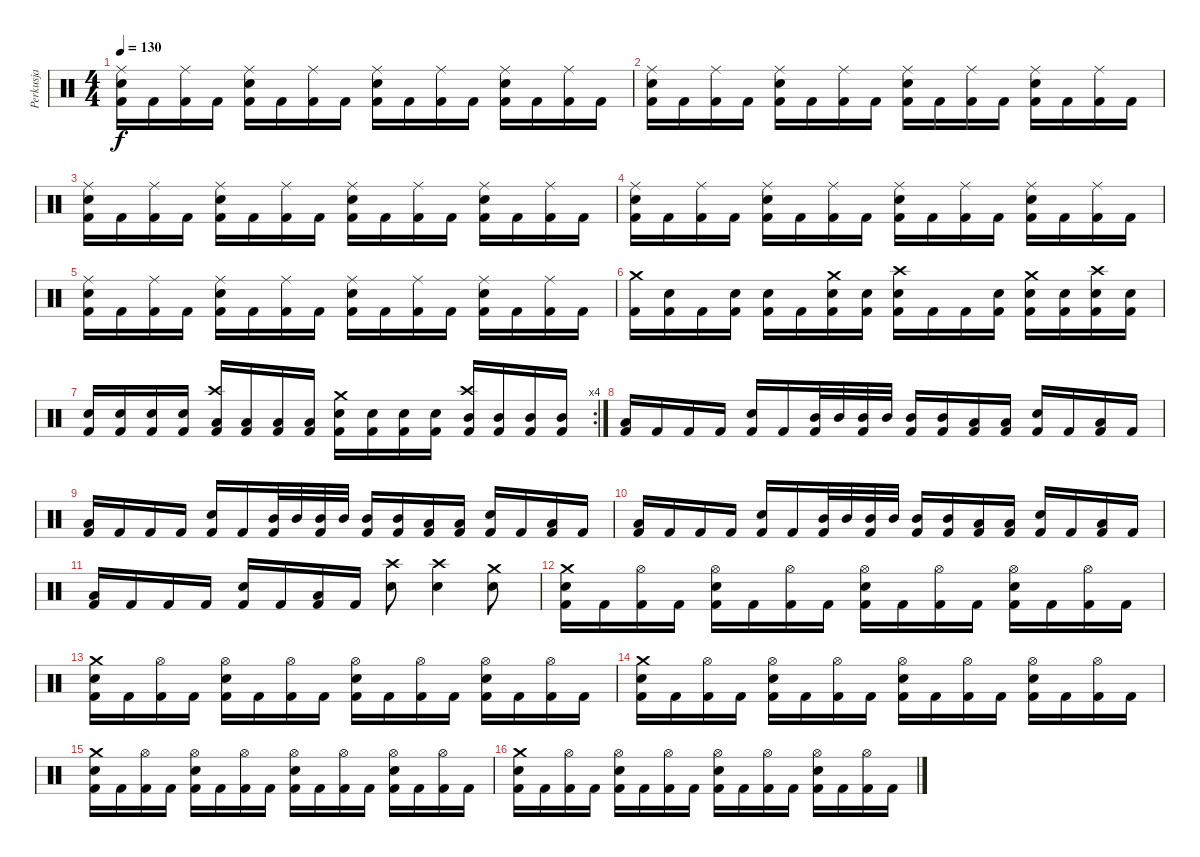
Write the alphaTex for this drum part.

\track ("Perkusja" "Perkusja") {instrument percussion}
\staff {score}
\articulation defaults
\ts (4 4)
\tempo 130
\clef neutral
\ks c
("Kick (hit) 2" "Snare (hit) 2" "Ride (middle)").16{dy f} "Kick (hit) 2".16 ("Kick (hit) 2" "Ride (middle)").16 "Kick (hit) 2".16 ("Kick (hit) 2" "Snare (hit) 2" "Ride (middle)").16 "Kick (hit) 2".16 ("Kick (hit) 2" "Ride (middle)").16 "Kick (hit) 2".16 ("Kick (hit) 2" "Snare (hit) 2" "Ride (middle)").16 "Kick (hit) 2".16 ("Kick (hit) 2" "Ride (middle)").16 "Kick (hit) 2".16 ("Kick (hit) 2" "Snare (hit) 2" "Ride (middle)").16 "Kick (hit) 2".16 ("Kick (hit) 2" "Ride (middle)").16 "Kick (hit) 2".16 |
("Kick (hit) 2" "Snare (hit) 2" "Ride (middle)").16 "Kick (hit) 2".16 ("Kick (hit) 2" "Ride (middle)").16 "Kick (hit) 2".16 ("Kick (hit) 2" "Snare (hit) 2" "Ride (middle)").16 "Kick (hit) 2".16 ("Kick (hit) 2" "Ride (middle)").16 "Kick (hit) 2".16 ("Kick (hit) 2" "Snare (hit) 2" "Ride (middle)").16 "Kick (hit) 2".16 ("Kick (hit) 2" "Ride (middle)").16 "Kick (hit) 2".16 ("Kick (hit) 2" "Snare (hit) 2" "Ride (middle)").16 "Kick (hit) 2".16 ("Kick (hit) 2" "Ride (middle)").16 "Kick (hit) 2".16 |
("Kick (hit) 2" "Snare (hit) 2" "Ride (middle)").16 "Kick (hit) 2".16 ("Kick (hit) 2" "Ride (middle)").16 "Kick (hit) 2".16 ("Kick (hit) 2" "Snare (hit) 2" "Ride (middle)").16 "Kick (hit) 2".16 ("Kick (hit) 2" "Ride (middle)").16 "Kick (hit) 2".16 ("Kick (hit) 2" "Snare (hit) 2" "Ride (middle)").16 "Kick (hit) 2".16 ("Kick (hit) 2" "Ride (middle)").16 "Kick (hit) 2".16 ("Kick (hit) 2" "Snare (hit) 2" "Ride (middle)").16 "Kick (hit) 2".16 ("Kick (hit) 2" "Ride (middle)").16 "Kick (hit) 2".16 |
("Kick (hit) 2" "Snare (hit) 2" "Ride (middle)").16 "Kick (hit) 2".16 ("Kick (hit) 2" "Ride (middle)").16 "Kick (hit) 2".16 ("Kick (hit) 2" "Snare (hit) 2" "Ride (middle)").16 "Kick (hit) 2".16 ("Kick (hit) 2" "Ride (middle)").16 "Kick (hit) 2".16 ("Kick (hit) 2" "Snare (hit) 2" "Ride (middle)").16 "Kick (hit) 2".16 ("Kick (hit) 2" "Ride (middle)").16 "Kick (hit) 2".16 ("Kick (hit) 2" "Snare (hit) 2" "Ride (middle)").16 "Kick (hit) 2".16 ("Kick (hit) 2" "Ride (middle)").16 "Kick (hit) 2".16 |
("Kick (hit) 2" "Snare (hit) 2" "Ride (middle)").16 "Kick (hit) 2".16 ("Kick (hit) 2" "Ride (middle)").16 "Kick (hit) 2".16 ("Kick (hit) 2" "Snare (hit) 2" "Ride (middle)").16 "Kick (hit) 2".16 ("Kick (hit) 2" "Ride (middle)").16 "Kick (hit) 2".16 ("Kick (hit) 2" "Snare (hit) 2" "Ride (middle)").16 "Kick (hit) 2".16 ("Kick (hit) 2" "Ride (middle)").16 "Kick (hit) 2".16 ("Kick (hit) 2" "Snare (hit) 2" "Ride (middle)").16 "Kick (hit) 2".16 ("Kick (hit) 2" "Ride (middle)").16 "Kick (hit) 2".16 |
("Kick (hit) 2" "Crash medium (hit)").16 ("Kick (hit) 2" "Snare (hit) 2").16 "Kick (hit) 2".16 ("Kick (hit) 2" "Snare (hit) 2").16 ("Kick (hit) 2" "Snare (hit) 2").16 "Kick (hit) 2".16 ("Kick (hit) 2" "Snare (hit) 2" "Crash medium (hit)").16 ("Kick (hit) 2" "Snare (hit) 2").16 ("Kick (hit) 2" "Snare (hit) 2" "Crash high (hit)").16 "Kick (hit) 2".16 "Kick (hit) 2".16 ("Kick (hit) 2" "Snare (hit) 2").16 ("Kick (hit) 2" "Snare (hit) 2" "Crash medium (hit)").16 ("Kick (hit) 2" "Snare (hit) 2").16 ("Kick (hit) 2" "Snare (hit) 2" "Crash high (hit)").16 ("Kick (hit) 2" "Snare (hit) 2").16 |
\rc 4
("Kick (hit) 2" "Snare (hit) 2").16 ("Kick (hit) 2" "Snare (hit) 2").16 ("Kick (hit) 2" "Snare (hit) 2").16 ("Kick (hit) 2" "Snare (hit) 2").16 ("Kick (hit) 2" "Low Tom (hit)" "Crash high (hit)").16 ("Kick (hit) 2" "Low Tom (hit)").16 ("Kick (hit) 2" "Low Tom (hit)").16 ("Kick (hit) 2" "Low Tom (hit)").16 ("Kick (hit) 2" "Snare (hit) 2" "Crash medium (hit)").16 ("Kick (hit) 2" "Snare (hit) 2").16 ("Kick (hit) 2" "Snare (hit) 2").16 ("Kick (hit) 2" "Snare (hit) 2").16 ("Kick (hit) 2" "Mid Tom (hit)" "Crash high (hit)").16 ("Kick (hit) 2" "Mid Tom (hit)").16 ("Kick (hit) 2" "Mid Tom (hit)").16 ("Kick (hit) 2" "Mid Tom (hit)").16 |
("Kick (hit) 2" "Low Floor Tom (hit)").16 "Kick (hit) 2".16 "Kick (hit) 2".16 "Kick (hit) 2".16 ("Kick (hit) 2" "Snare (hit) 2").16 "Kick (hit) 2".16 ("Kick (hit) 2" "Mid Tom (hit)").32 "Mid Tom (hit)".32 ("Kick (hit) 2" "Mid Tom (hit)").32 "Mid Tom (hit)".32 ("Kick (hit) 2" "Mid Tom (hit)").16 ("Kick (hit) 2" "Mid Tom (hit)").16 ("Kick (hit) 2" "Low Tom (hit)").16 ("Kick (hit) 2" "Low Tom (hit)").16 ("Kick (hit) 2" "Snare (hit) 2").16 "Kick (hit) 2".16 ("Kick (hit) 2" "Low Floor Tom (hit)").16 "Kick (hit) 2".16 |
("Kick (hit) 2" "Low Floor Tom (hit)").16 "Kick (hit) 2".16 "Kick (hit) 2".16 "Kick (hit) 2".16 ("Kick (hit) 2" "Snare (hit) 2").16 "Kick (hit) 2".16 ("Kick (hit) 2" "Mid Tom (hit)").32 "Mid Tom (hit)".32 ("Kick (hit) 2" "Mid Tom (hit)").32 "Mid Tom (hit)".32 ("Kick (hit) 2" "Mid Tom (hit)").16 ("Kick (hit) 2" "Mid Tom (hit)").16 ("Kick (hit) 2" "Low Tom (hit)").16 ("Kick (hit) 2" "Low Tom (hit)").16 ("Kick (hit) 2" "Snare (hit) 2").16 "Kick (hit) 2".16 ("Kick (hit) 2" "Low Floor Tom (hit)").16 "Kick (hit) 2".16 |
("Kick (hit) 2" "Low Floor Tom (hit)").16 "Kick (hit) 2".16 "Kick (hit) 2".16 "Kick (hit) 2".16 ("Kick (hit) 2" "Snare (hit) 2").16 "Kick (hit) 2".16 ("Kick (hit) 2" "Mid Tom (hit)").32 "Mid Tom (hit)".32 ("Kick (hit) 2" "Mid Tom (hit)").32 "Mid Tom (hit)".32 ("Kick (hit) 2" "Mid Tom (hit)").16 ("Kick (hit) 2" "Mid Tom (hit)").16 ("Kick (hit) 2" "Low Tom (hit)").16 ("Kick (hit) 2" "Low Tom (hit)").16 ("Kick (hit) 2" "Snare (hit) 2").16 "Kick (hit) 2".16 ("Kick (hit) 2" "Low Floor Tom (hit)").16 "Kick (hit) 2".16 |
("Kick (hit) 2" "Low Floor Tom (hit)").16 "Kick (hit) 2".16 "Kick (hit) 2".16 "Kick (hit) 2".16 ("Kick (hit) 2" "Snare (hit) 2").16 "Kick (hit) 2".16 ("Kick (hit) 2" "Low Floor Tom (hit)").16 "Kick (hit) 2".16 ("Crash high (hit)" "Snare (hit) 2").8 ("Crash high (hit)" "Snare (hit) 2").4 ("Crash medium (hit)" "Snare (hit) 2").8 |
("Kick (hit) 2" "Snare (hit) 2" "Crash medium (hit)").16 "Kick (hit) 2".16 ("Kick (hit) 2" "Hi-Hat (open)").16 "Kick (hit) 2".16 ("Kick (hit) 2" "Snare (hit) 2" "Hi-Hat (open)").16 "Kick (hit) 2".16 ("Kick (hit) 2" "Hi-Hat (open)").16 "Kick (hit) 2".16 ("Kick (hit) 2" "Snare (hit) 2" "Hi-Hat (open)").16 "Kick (hit) 2".16 ("Kick (hit) 2" "Hi-Hat (open)").16 "Kick (hit) 2".16 ("Kick (hit) 2" "Snare (hit) 2" "Hi-Hat (open)").16 "Kick (hit) 2".16 ("Kick (hit) 2" "Hi-Hat (open)").16 "Kick (hit) 2".16 |
("Kick (hit) 2" "Snare (hit) 2" "Crash medium (hit)").16 "Kick (hit) 2".16 ("Kick (hit) 2" "Hi-Hat (open)").16 "Kick (hit) 2".16 ("Kick (hit) 2" "Snare (hit) 2" "Hi-Hat (open)").16 "Kick (hit) 2".16 ("Kick (hit) 2" "Hi-Hat (open)").16 "Kick (hit) 2".16 ("Kick (hit) 2" "Snare (hit) 2" "Hi-Hat (open)").16 "Kick (hit) 2".16 ("Kick (hit) 2" "Hi-Hat (open)").16 "Kick (hit) 2".16 ("Kick (hit) 2" "Snare (hit) 2" "Hi-Hat (open)").16 "Kick (hit) 2".16 ("Kick (hit) 2" "Hi-Hat (open)").16 "Kick (hit) 2".16 |
("Kick (hit) 2" "Snare (hit) 2" "Crash medium (hit)").16 "Kick (hit) 2".16 ("Kick (hit) 2" "Hi-Hat (open)").16 "Kick (hit) 2".16 ("Kick (hit) 2" "Snare (hit) 2" "Hi-Hat (open)").16 "Kick (hit) 2".16 ("Kick (hit) 2" "Hi-Hat (open)").16 "Kick (hit) 2".16 ("Kick (hit) 2" "Snare (hit) 2" "Hi-Hat (open)").16 "Kick (hit) 2".16 ("Kick (hit) 2" "Hi-Hat (open)").16 "Kick (hit) 2".16 ("Kick (hit) 2" "Snare (hit) 2" "Hi-Hat (open)").16 "Kick (hit) 2".16 ("Kick (hit) 2" "Hi-Hat (open)").16 "Kick (hit) 2".16 |
("Kick (hit) 2" "Snare (hit) 2" "Crash medium (hit)").16 "Kick (hit) 2".16 ("Kick (hit) 2" "Hi-Hat (open)").16 "Kick (hit) 2".16 ("Kick (hit) 2" "Snare (hit) 2" "Hi-Hat (open)").16 "Kick (hit) 2".16 ("Kick (hit) 2" "Hi-Hat (open)").16 "Kick (hit) 2".16 ("Kick (hit) 2" "Snare (hit) 2" "Hi-Hat (open)").16 "Kick (hit) 2".16 ("Kick (hit) 2" "Hi-Hat (open)").16 "Kick (hit) 2".16 ("Kick (hit) 2" "Snare (hit) 2" "Hi-Hat (open)").16 "Kick (hit) 2".16 ("Kick (hit) 2" "Hi-Hat (open)").16 "Kick (hit) 2".16 |
("Kick (hit) 2" "Snare (hit) 2" "Crash medium (hit)").16 "Kick (hit) 2".16 ("Kick (hit) 2" "Hi-Hat (open)").16 "Kick (hit) 2".16 ("Kick (hit) 2" "Snare (hit) 2" "Hi-Hat (open)").16 "Kick (hit) 2".16 ("Kick (hit) 2" "Hi-Hat (open)").16 "Kick (hit) 2".16 ("Kick (hit) 2" "Snare (hit) 2" "Hi-Hat (open)").16 "Kick (hit) 2".16 ("Kick (hit) 2" "Hi-Hat (open)").16 "Kick (hit) 2".16 ("Kick (hit) 2" "Snare (hit) 2" "Hi-Hat (open)").16 "Kick (hit) 2".16 ("Kick (hit) 2" "Hi-Hat (open)").16 "Kick (hit) 2".16
